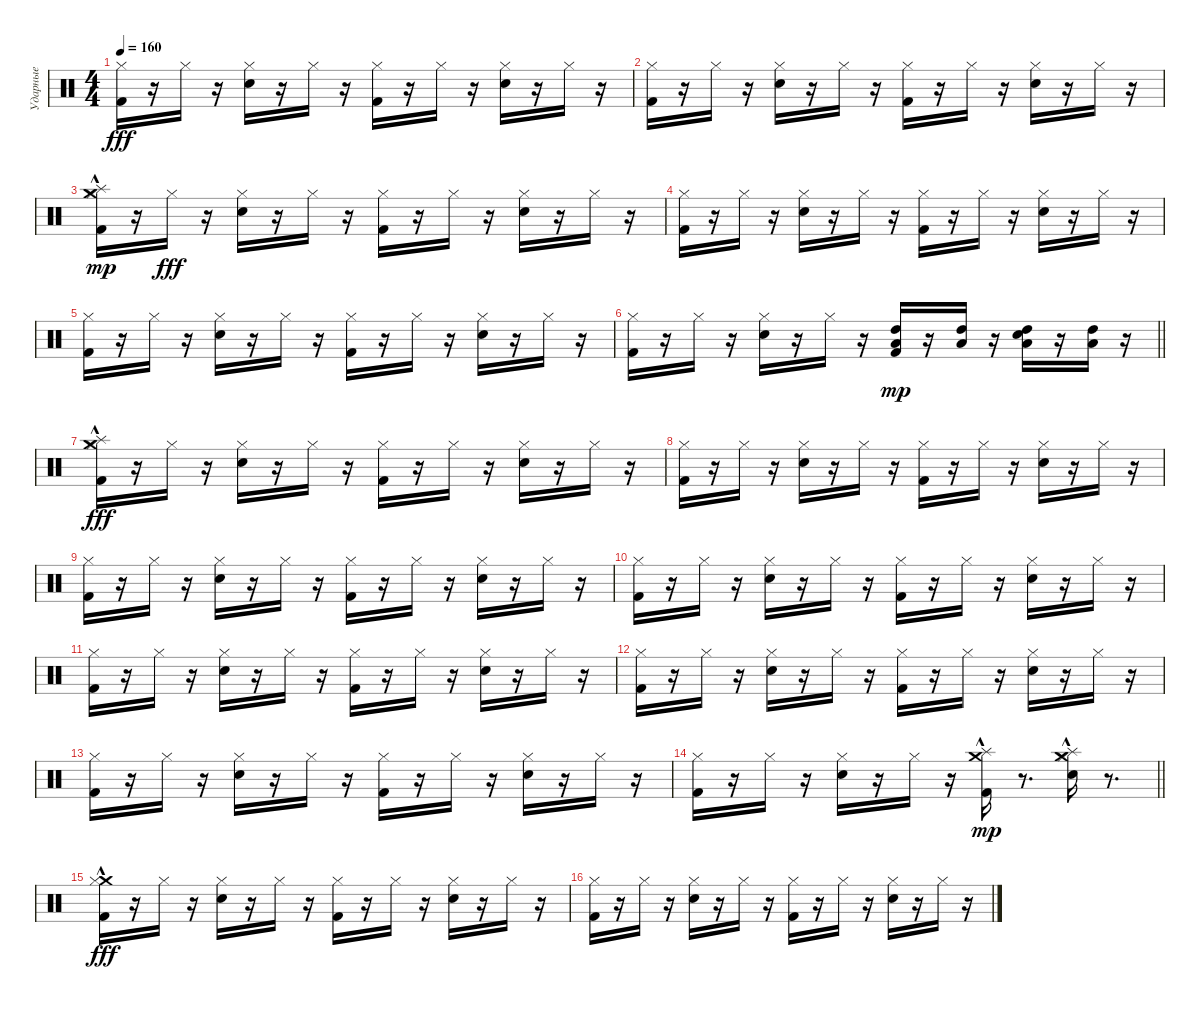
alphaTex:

\track ("Ударные" "Ударные") {instrument percussion}
\staff {score}
\articulation defaults
\ts (4 4)
\tempo 160
\clef neutral
\ks c
("Hi-Hat (closed)" "Kick (hit) 2").16{dy fff} r.16 "Hi-Hat (closed)".16 r.16 ("Hi-Hat (closed)" "Electric Snare (hit)").16 r.16 "Hi-Hat (closed)".16 r.16 ("Hi-Hat (closed)" "Kick (hit) 2").16 r.16 "Hi-Hat (closed)".16 r.16 ("Hi-Hat (closed)" "Electric Snare (hit)").16 r.16 "Hi-Hat (closed)".16 r.16 |
("Hi-Hat (closed)" "Kick (hit) 2").16 r.16 "Hi-Hat (closed)".16 r.16 ("Hi-Hat (closed)" "Electric Snare (hit)").16 r.16 "Hi-Hat (closed)".16 r.16 ("Hi-Hat (closed)" "Kick (hit) 2").16 r.16 "Hi-Hat (closed)".16 r.16 ("Hi-Hat (closed)" "Electric Snare (hit)").16 r.16 "Hi-Hat (closed)".16 r.16 |
("Hi-Hat (closed)" "Kick (hit) 2" "Crash medium (hit)"{hac} "Splash (hit)").16{dy mp} r.16 "Hi-Hat (closed)".16{dy fff} r.16 ("Hi-Hat (closed)" "Electric Snare (hit)").16 r.16 "Hi-Hat (closed)".16 r.16 ("Hi-Hat (closed)" "Kick (hit) 2").16 r.16 "Hi-Hat (closed)".16 r.16 ("Hi-Hat (closed)" "Electric Snare (hit)").16 r.16 "Hi-Hat (closed)".16 r.16 |
("Hi-Hat (closed)" "Kick (hit) 2").16 r.16 "Hi-Hat (closed)".16 r.16 ("Hi-Hat (closed)" "Electric Snare (hit)").16 r.16 "Hi-Hat (closed)".16 r.16 ("Hi-Hat (closed)" "Kick (hit) 2").16 r.16 "Hi-Hat (closed)".16 r.16 ("Hi-Hat (closed)" "Electric Snare (hit)").16 r.16 "Hi-Hat (closed)".16 r.16 |
("Hi-Hat (closed)" "Kick (hit) 2").16 r.16 "Hi-Hat (closed)".16 r.16 ("Hi-Hat (closed)" "Electric Snare (hit)").16 r.16 "Hi-Hat (closed)".16 r.16 ("Hi-Hat (closed)" "Kick (hit) 2").16 r.16 "Hi-Hat (closed)".16 r.16 ("Hi-Hat (closed)" "Electric Snare (hit)").16 r.16 "Hi-Hat (closed)".16 r.16 |
\barLineRight lightlight
("Hi-Hat (closed)" "Kick (hit) 2").16 r.16 "Hi-Hat (closed)".16 r.16 ("Hi-Hat (closed)" "Electric Snare (hit)").16 r.16 "Hi-Hat (closed)".16 r.16 ("Kick (hit) 2" "High Tom (hit)" "Low Tom (hit)").16{dy mp} r.16 ("High Tom (hit)" "Low Tom (hit)").16 r.16 ("Electric Snare (hit)" "High Tom (hit)" "Low Tom (hit)").16 r.16 ("High Tom (hit)" "Low Tom (hit)").16 r.16 |
("Crash medium (hit)"{hac} "Splash (hit)" "Hi-Hat (closed)" "Kick (hit) 2").16{dy fff} r.16 "Hi-Hat (closed)".16 r.16 ("Hi-Hat (closed)" "Electric Snare (hit)").16 r.16 "Hi-Hat (closed)".16 r.16 ("Hi-Hat (closed)" "Kick (hit) 2").16 r.16 "Hi-Hat (closed)".16 r.16 ("Hi-Hat (closed)" "Electric Snare (hit)").16 r.16 "Hi-Hat (closed)".16 r.16 |
("Hi-Hat (closed)" "Kick (hit) 2").16 r.16 "Hi-Hat (closed)".16 r.16 ("Hi-Hat (closed)" "Electric Snare (hit)").16 r.16 "Hi-Hat (closed)".16 r.16 ("Hi-Hat (closed)" "Kick (hit) 2").16 r.16 "Hi-Hat (closed)".16 r.16 ("Hi-Hat (closed)" "Electric Snare (hit)").16 r.16 "Hi-Hat (closed)".16 r.16 |
("Hi-Hat (closed)" "Kick (hit) 2").16 r.16 "Hi-Hat (closed)".16 r.16 ("Hi-Hat (closed)" "Electric Snare (hit)").16 r.16 "Hi-Hat (closed)".16 r.16 ("Hi-Hat (closed)" "Kick (hit) 2").16 r.16 "Hi-Hat (closed)".16 r.16 ("Hi-Hat (closed)" "Electric Snare (hit)").16 r.16 "Hi-Hat (closed)".16 r.16 |
("Hi-Hat (closed)" "Kick (hit) 2").16 r.16 "Hi-Hat (closed)".16 r.16 ("Hi-Hat (closed)" "Electric Snare (hit)").16 r.16 "Hi-Hat (closed)".16 r.16 ("Hi-Hat (closed)" "Kick (hit) 2").16 r.16 "Hi-Hat (closed)".16 r.16 ("Hi-Hat (closed)" "Electric Snare (hit)").16 r.16 "Hi-Hat (closed)".16 r.16 |
("Hi-Hat (closed)" "Kick (hit) 2").16 r.16 "Hi-Hat (closed)".16 r.16 ("Hi-Hat (closed)" "Electric Snare (hit)").16 r.16 "Hi-Hat (closed)".16 r.16 ("Hi-Hat (closed)" "Kick (hit) 2").16 r.16 "Hi-Hat (closed)".16 r.16 ("Hi-Hat (closed)" "Electric Snare (hit)").16 r.16 "Hi-Hat (closed)".16 r.16 |
("Hi-Hat (closed)" "Kick (hit) 2").16 r.16 "Hi-Hat (closed)".16 r.16 ("Hi-Hat (closed)" "Electric Snare (hit)").16 r.16 "Hi-Hat (closed)".16 r.16 ("Hi-Hat (closed)" "Kick (hit) 2").16 r.16 "Hi-Hat (closed)".16 r.16 ("Hi-Hat (closed)" "Electric Snare (hit)").16 r.16 "Hi-Hat (closed)".16 r.16 |
("Hi-Hat (closed)" "Kick (hit) 2").16 r.16 "Hi-Hat (closed)".16 r.16 ("Hi-Hat (closed)" "Electric Snare (hit)").16 r.16 "Hi-Hat (closed)".16 r.16 ("Hi-Hat (closed)" "Kick (hit) 2").16 r.16 "Hi-Hat (closed)".16 r.16 ("Hi-Hat (closed)" "Electric Snare (hit)").16 r.16 "Hi-Hat (closed)".16 r.16 |
\barLineRight lightlight
("Hi-Hat (closed)" "Kick (hit) 2").16 r.16 "Hi-Hat (closed)".16 r.16 ("Hi-Hat (closed)" "Electric Snare (hit)").16 r.16 "Hi-Hat (closed)".16 r.16 ("Kick (hit) 2" "Crash medium (hit)"{hac} "Splash (hit)").16{dy mp} r.8{d} ("Hi-Hat (closed)" "Electric Snare (hit)" "Crash medium (hit)"{hac} "Splash (hit)").16 r.8{d} |
("Crash medium (hit)"{hac} "Hi-Hat (closed)" "Kick (hit) 2").16{dy fff} r.16 "Hi-Hat (closed)".16 r.16 ("Hi-Hat (closed)" "Electric Snare (hit)").16 r.16 "Hi-Hat (closed)".16 r.16 ("Hi-Hat (closed)" "Kick (hit) 2").16 r.16 "Hi-Hat (closed)".16 r.16 ("Hi-Hat (closed)" "Electric Snare (hit)").16 r.16 "Hi-Hat (closed)".16 r.16 |
("Hi-Hat (closed)" "Kick (hit) 2").16 r.16 "Hi-Hat (closed)".16 r.16 ("Hi-Hat (closed)" "Electric Snare (hit)").16 r.16 "Hi-Hat (closed)".16 r.16 ("Hi-Hat (closed)" "Kick (hit) 2").16 r.16 "Hi-Hat (closed)".16 r.16 ("Hi-Hat (closed)" "Electric Snare (hit)").16 r.16 "Hi-Hat (closed)".16 r.16
